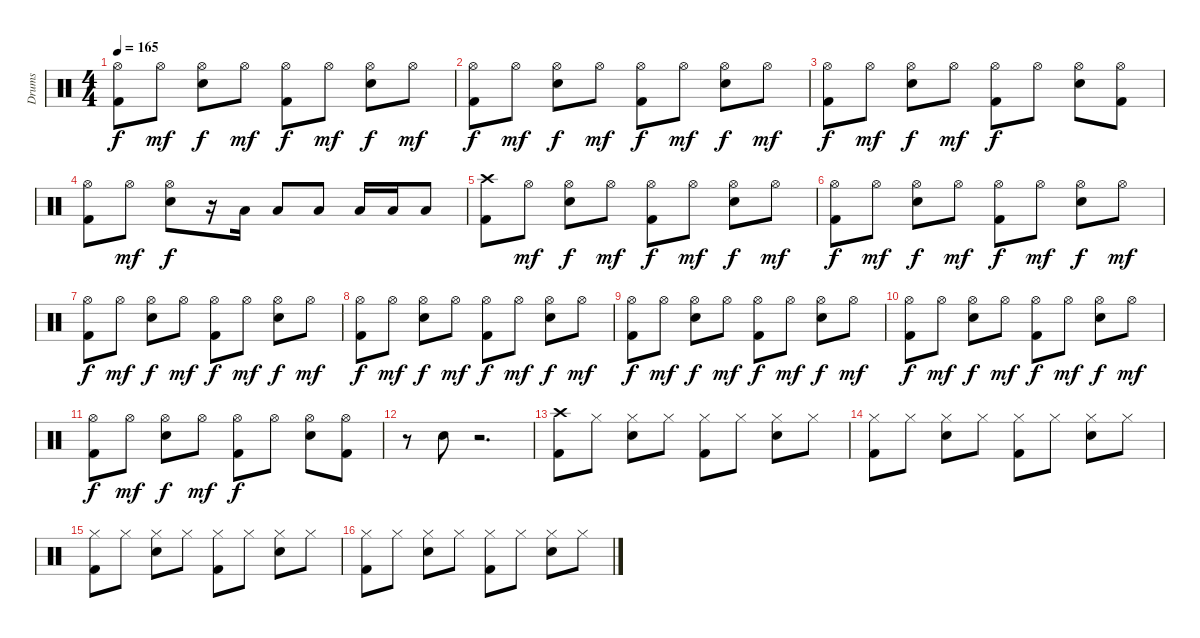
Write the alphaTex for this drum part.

\track ("Drums" "Drums") {instrument percussion}
\staff {score}
\articulation defaults
\ts (4 4)
\tempo 165
\clef neutral
\ks c
("Hi-Hat (open)" "Kick (hit) 2").8{dy f} "Hi-Hat (open)".8{dy mf} ("Hi-Hat (open)" "Electric Snare (hit)").8{dy f} "Hi-Hat (open)".8{dy mf} ("Hi-Hat (open)" "Kick (hit) 2").8{dy f} "Hi-Hat (open)".8{dy mf} ("Hi-Hat (open)" "Electric Snare (hit)").8{dy f} "Hi-Hat (open)".8{dy mf} |
("Hi-Hat (open)" "Kick (hit) 2").8{dy f} "Hi-Hat (open)".8{dy mf} ("Hi-Hat (open)" "Electric Snare (hit)").8{dy f} "Hi-Hat (open)".8{dy mf} ("Hi-Hat (open)" "Kick (hit) 2").8{dy f} "Hi-Hat (open)".8{dy mf} ("Hi-Hat (open)" "Electric Snare (hit)").8{dy f} "Hi-Hat (open)".8{dy mf} |
("Hi-Hat (open)" "Kick (hit) 2").8{dy f} "Hi-Hat (open)".8{dy mf} ("Hi-Hat (open)" "Electric Snare (hit)").8{dy f} "Hi-Hat (open)".8{dy mf} ("Hi-Hat (open)" "Kick (hit) 2").8{dy f} "Hi-Hat (open)".8 ("Hi-Hat (open)" "Electric Snare (hit)").8 ("Hi-Hat (open)" "Kick (hit) 2").8 |
("Hi-Hat (open)" "Kick (hit) 2").8 "Hi-Hat (open)".8{dy mf} ("Hi-Hat (open)" "Electric Snare (hit)").8{dy f} r.16 "Low Floor Tom (hit)".16 "Low Floor Tom (hit)".8 "Low Floor Tom (hit)".8 "Low Floor Tom (hit)".16 "Low Floor Tom (hit)".16 "Low Floor Tom (hit)".8 |
("Crash high (hit)" "Kick (hit) 2").8 "Hi-Hat (open)".8{dy mf} ("Hi-Hat (open)" "Electric Snare (hit)").8{dy f} "Hi-Hat (open)".8{dy mf} ("Hi-Hat (open)" "Kick (hit) 2").8{dy f} "Hi-Hat (open)".8{dy mf} ("Hi-Hat (open)" "Electric Snare (hit)").8{dy f} "Hi-Hat (open)".8{dy mf} |
("Hi-Hat (open)" "Kick (hit) 2").8{dy f} "Hi-Hat (open)".8{dy mf} ("Hi-Hat (open)" "Electric Snare (hit)").8{dy f} "Hi-Hat (open)".8{dy mf} ("Hi-Hat (open)" "Kick (hit) 2").8{dy f} "Hi-Hat (open)".8{dy mf} ("Hi-Hat (open)" "Electric Snare (hit)").8{dy f} "Hi-Hat (open)".8{dy mf} |
("Hi-Hat (open)" "Kick (hit) 2").8{dy f} "Hi-Hat (open)".8{dy mf} ("Hi-Hat (open)" "Electric Snare (hit)").8{dy f} "Hi-Hat (open)".8{dy mf} ("Hi-Hat (open)" "Kick (hit) 2").8{dy f} "Hi-Hat (open)".8{dy mf} ("Hi-Hat (open)" "Electric Snare (hit)").8{dy f} "Hi-Hat (open)".8{dy mf} |
("Hi-Hat (open)" "Kick (hit) 2").8{dy f} "Hi-Hat (open)".8{dy mf} ("Hi-Hat (open)" "Electric Snare (hit)").8{dy f} "Hi-Hat (open)".8{dy mf} ("Hi-Hat (open)" "Kick (hit) 2").8{dy f} "Hi-Hat (open)".8{dy mf} ("Hi-Hat (open)" "Electric Snare (hit)").8{dy f} "Hi-Hat (open)".8{dy mf} |
("Hi-Hat (open)" "Kick (hit) 2").8{dy f} "Hi-Hat (open)".8{dy mf} ("Hi-Hat (open)" "Electric Snare (hit)").8{dy f} "Hi-Hat (open)".8{dy mf} ("Hi-Hat (open)" "Kick (hit) 2").8{dy f} "Hi-Hat (open)".8{dy mf} ("Hi-Hat (open)" "Electric Snare (hit)").8{dy f} "Hi-Hat (open)".8{dy mf} |
("Hi-Hat (open)" "Kick (hit) 2").8{dy f} "Hi-Hat (open)".8{dy mf} ("Hi-Hat (open)" "Electric Snare (hit)").8{dy f} "Hi-Hat (open)".8{dy mf} ("Hi-Hat (open)" "Kick (hit) 2").8{dy f} "Hi-Hat (open)".8{dy mf} ("Hi-Hat (open)" "Electric Snare (hit)").8{dy f} "Hi-Hat (open)".8{dy mf} |
("Hi-Hat (open)" "Kick (hit) 2").8{dy f} "Hi-Hat (open)".8{dy mf} ("Hi-Hat (open)" "Electric Snare (hit)").8{dy f} "Hi-Hat (open)".8{dy mf} ("Hi-Hat (open)" "Kick (hit) 2").8{dy f} "Hi-Hat (open)".8 ("Hi-Hat (open)" "Electric Snare (hit)").8 ("Hi-Hat (open)" "Kick (hit) 2").8 |
r.8 "Electric Snare (hit)".8 r.2{d} |
("Crash high (hit)" "Kick (hit) 2").8 "Hi-Hat (closed)".8 ("Hi-Hat (closed)" "Electric Snare (hit)").8 "Hi-Hat (closed)".8 ("Hi-Hat (closed)" "Kick (hit) 2").8 "Hi-Hat (closed)".8 ("Hi-Hat (closed)" "Electric Snare (hit)").8 "Hi-Hat (closed)".8 |
("Hi-Hat (closed)" "Kick (hit) 2").8 "Hi-Hat (closed)".8 ("Hi-Hat (closed)" "Electric Snare (hit)").8 "Hi-Hat (closed)".8 ("Hi-Hat (closed)" "Kick (hit) 2").8 "Hi-Hat (closed)".8 ("Hi-Hat (closed)" "Electric Snare (hit)").8 "Hi-Hat (closed)".8 |
("Hi-Hat (closed)" "Kick (hit) 2").8 "Hi-Hat (closed)".8 ("Hi-Hat (closed)" "Electric Snare (hit)").8 "Hi-Hat (closed)".8 ("Hi-Hat (closed)" "Kick (hit) 2").8 "Hi-Hat (closed)".8 ("Hi-Hat (closed)" "Electric Snare (hit)").8 "Hi-Hat (closed)".8 |
("Hi-Hat (closed)" "Kick (hit) 2").8 "Hi-Hat (closed)".8 ("Hi-Hat (closed)" "Electric Snare (hit)").8 "Hi-Hat (closed)".8 ("Hi-Hat (closed)" "Kick (hit) 2").8 "Hi-Hat (closed)".8 ("Hi-Hat (closed)" "Electric Snare (hit)").8 "Hi-Hat (closed)".8
